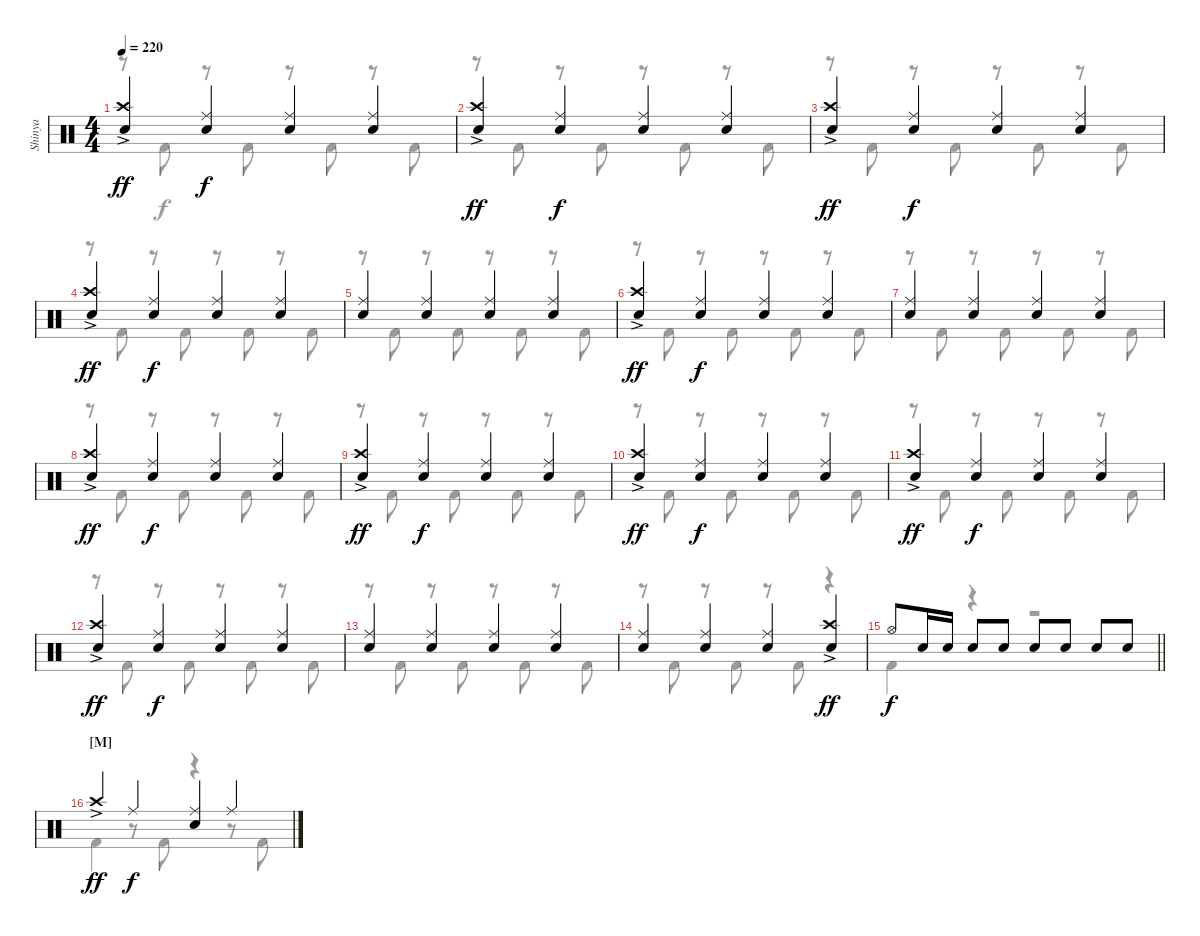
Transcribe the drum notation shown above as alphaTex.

\track ("Shinya" "Shinya") {instrument percussion}
\staff {score}
\articulation defaults
\voice
\ts (4 4)
\tempo 220
\clef neutral
\ks c
("Crash high (hit)"{ac} "Snare (hit) 2").4{dy ff} ("Ride (middle)" "Snare (hit) 2").4{dy f} ("Ride (middle)" "Snare (hit) 2").4 ("Ride (middle)" "Snare (hit) 2").4 |
("Crash high (hit)"{ac} "Snare (hit) 2").4{dy ff} ("Ride (middle)" "Snare (hit) 2").4{dy f} ("Ride (middle)" "Snare (hit) 2").4 ("Ride (middle)" "Snare (hit) 2").4 |
("Crash high (hit)"{ac} "Snare (hit) 2").4{dy ff} ("Ride (middle)" "Snare (hit) 2").4{dy f} ("Ride (middle)" "Snare (hit) 2").4 ("Ride (middle)" "Snare (hit) 2").4 |
("Crash high (hit)"{ac} "Snare (hit) 2").4{dy ff} ("Ride (middle)" "Snare (hit) 2").4{dy f} ("Ride (middle)" "Snare (hit) 2").4 ("Ride (middle)" "Snare (hit) 2").4 |
("Ride (middle)" "Snare (hit) 2").4 ("Ride (middle)" "Snare (hit) 2").4 ("Ride (middle)" "Snare (hit) 2").4 ("Ride (middle)" "Snare (hit) 2").4 |
("Crash high (hit)"{ac} "Snare (hit) 2").4{dy ff} ("Ride (middle)" "Snare (hit) 2").4{dy f} ("Ride (middle)" "Snare (hit) 2").4 ("Ride (middle)" "Snare (hit) 2").4 |
("Ride (middle)" "Snare (hit) 2").4 ("Ride (middle)" "Snare (hit) 2").4 ("Ride (middle)" "Snare (hit) 2").4 ("Ride (middle)" "Snare (hit) 2").4 |
("Crash high (hit)"{ac} "Snare (hit) 2").4{dy ff} ("Ride (middle)" "Snare (hit) 2").4{dy f} ("Ride (middle)" "Snare (hit) 2").4 ("Ride (middle)" "Snare (hit) 2").4 |
("Crash high (hit)"{ac} "Snare (hit) 2").4{dy ff} ("Ride (middle)" "Snare (hit) 2").4{dy f} ("Ride (middle)" "Snare (hit) 2").4 ("Ride (middle)" "Snare (hit) 2").4 |
("Crash high (hit)"{ac} "Snare (hit) 2").4{dy ff} ("Ride (middle)" "Snare (hit) 2").4{dy f} ("Ride (middle)" "Snare (hit) 2").4 ("Ride (middle)" "Snare (hit) 2").4 |
("Crash high (hit)"{ac} "Snare (hit) 2").4{dy ff} ("Ride (middle)" "Snare (hit) 2").4{dy f} ("Ride (middle)" "Snare (hit) 2").4 ("Ride (middle)" "Snare (hit) 2").4 |
("Crash high (hit)"{ac} "Snare (hit) 2").4{dy ff} ("Ride (middle)" "Snare (hit) 2").4{dy f} ("Ride (middle)" "Snare (hit) 2").4 ("Ride (middle)" "Snare (hit) 2").4 |
("Ride (middle)" "Snare (hit) 2").4 ("Ride (middle)" "Snare (hit) 2").4 ("Ride (middle)" "Snare (hit) 2").4 ("Ride (middle)" "Snare (hit) 2").4 |
("Ride (middle)" "Snare (hit) 2").4 ("Ride (middle)" "Snare (hit) 2").4 ("Ride (middle)" "Snare (hit) 2").4 ("Crash high (hit)"{ac} "Snare (hit) 2").4{dy ff} |
\barLineRight lightlight "Hi-Hat (open)".8{dy f} "Snare (hit) 2".16 "Snare (hit) 2".16 "Snare (hit) 2".8 "Snare (hit) 2".8 "Snare (hit) 2".8 "Snare (hit) 2".8 "Snare (hit) 2".8 "Snare (hit) 2".8
|
\section ("" "[M]")
"Crash high (hit)"{ac}.4{dy ff} "Ride (middle)".4{dy f} ("Ride (middle)" "Snare (hit) 2").4 "Ride (middle)".4
\voice
\clef neutral
\ottava regular
\simile none
\ks c
r.8{dy f} "Kick (hit) 2".8 r.8 "Kick (hit) 2".8 r.8 "Kick (hit) 2".8 r.8 "Kick (hit) 2".8 |
r.8 "Kick (hit) 2".8 r.8 "Kick (hit) 2".8 r.8 "Kick (hit) 2".8 r.8 "Kick (hit) 2".8 |
r.8 "Kick (hit) 2".8 r.8 "Kick (hit) 2".8 r.8 "Kick (hit) 2".8 r.8 "Kick (hit) 2".8 |
r.8 "Kick (hit) 2".8 r.8 "Kick (hit) 2".8 r.8 "Kick (hit) 2".8 r.8 "Kick (hit) 2".8 |
r.8 "Kick (hit) 2".8 r.8 "Kick (hit) 2".8 r.8 "Kick (hit) 2".8 r.8 "Kick (hit) 2".8 |
r.8 "Kick (hit) 2".8 r.8 "Kick (hit) 2".8 r.8 "Kick (hit) 2".8 r.8 "Kick (hit) 2".8 |
r.8 "Kick (hit) 2".8 r.8 "Kick (hit) 2".8 r.8 "Kick (hit) 2".8 r.8 "Kick (hit) 2".8 |
r.8 "Kick (hit) 2".8 r.8 "Kick (hit) 2".8 r.8 "Kick (hit) 2".8 r.8 "Kick (hit) 2".8 |
r.8 "Kick (hit) 2".8 r.8 "Kick (hit) 2".8 r.8 "Kick (hit) 2".8 r.8 "Kick (hit) 2".8 |
r.8 "Kick (hit) 2".8 r.8 "Kick (hit) 2".8 r.8 "Kick (hit) 2".8 r.8 "Kick (hit) 2".8 |
r.8 "Kick (hit) 2".8 r.8 "Kick (hit) 2".8 r.8 "Kick (hit) 2".8 r.8 "Kick (hit) 2".8 |
r.8 "Kick (hit) 2".8 r.8 "Kick (hit) 2".8 r.8 "Kick (hit) 2".8 r.8 "Kick (hit) 2".8 |
r.8 "Kick (hit) 2".8 r.8 "Kick (hit) 2".8 r.8 "Kick (hit) 2".8 r.8 "Kick (hit) 2".8 |
r.8 "Kick (hit) 2".8 r.8 "Kick (hit) 2".8 r.8 "Kick (hit) 2".8 r.4 |
\barLineRight lightlight "Kick (hit) 2".4
r.4 r.2 |
"Kick (hit) 2".4 r.8 "Kick (hit) 2".8 r.4 r.8 "Kick (hit) 2".8
